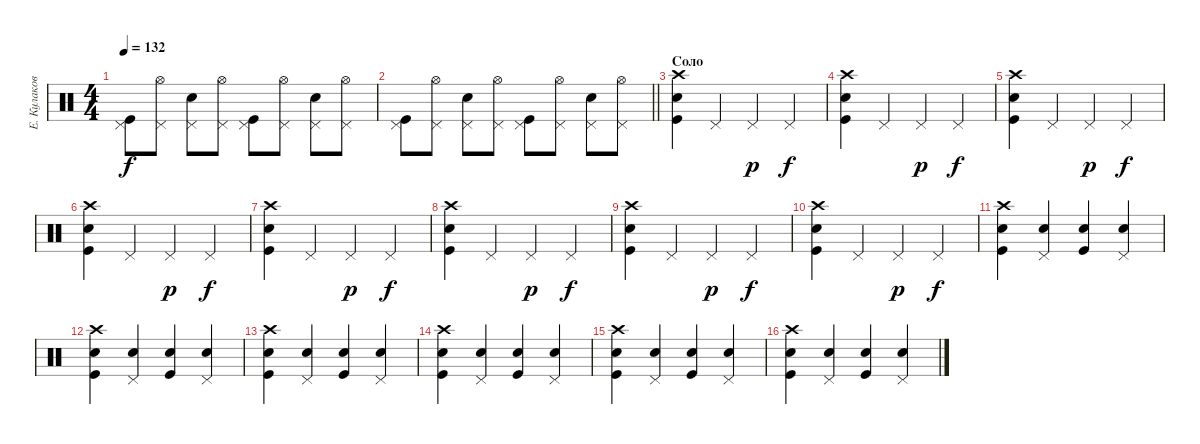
\track ("Е. Кулаков" "Е. Кулаков") {instrument percussion}
\staff {score}
\articulation defaults
\ts (4 4)
\tempo 132
\clef neutral
\ks c
("Kick (hit)" "Pedal Hi-Hat (hit)").8{dy f} ("Hi-Hat (open)" "Pedal Hi-Hat (hit)").8 ("Pedal Hi-Hat (hit)" "Snare (hit) 2").8 ("Hi-Hat (open)" "Pedal Hi-Hat (hit)").8 ("Kick (hit)" "Pedal Hi-Hat (hit)").8 ("Hi-Hat (open)" "Pedal Hi-Hat (hit)").8 ("Pedal Hi-Hat (hit)" "Snare (hit) 2").8 ("Hi-Hat (open)" "Pedal Hi-Hat (hit)").8 |
\barLineRight lightlight
("Kick (hit)" "Pedal Hi-Hat (hit)").8 ("Hi-Hat (open)" "Pedal Hi-Hat (hit)").8 ("Pedal Hi-Hat (hit)" "Snare (hit) 2").8 ("Hi-Hat (open)" "Pedal Hi-Hat (hit)").8 ("Kick (hit)" "Pedal Hi-Hat (hit)").8 ("Hi-Hat (open)" "Pedal Hi-Hat (hit)").8 ("Pedal Hi-Hat (hit)" "Snare (hit) 2").8 ("Hi-Hat (open)" "Pedal Hi-Hat (hit)").8 |
\section ("" "Соло")
("Snare (hit) 2" "Kick (hit)" "Crash high (hit)").4 "Pedal Hi-Hat (hit)".4 "Pedal Hi-Hat (hit)".4{dy p} "Pedal Hi-Hat (hit)".4{dy f} |
("Snare (hit) 2" "Kick (hit)" "Crash high (hit)").4 "Pedal Hi-Hat (hit)".4 "Pedal Hi-Hat (hit)".4{dy p} "Pedal Hi-Hat (hit)".4{dy f} |
("Snare (hit) 2" "Kick (hit)" "Crash high (hit)").4 "Pedal Hi-Hat (hit)".4 "Pedal Hi-Hat (hit)".4{dy p} "Pedal Hi-Hat (hit)".4{dy f} |
("Snare (hit) 2" "Kick (hit)" "Crash high (hit)").4 "Pedal Hi-Hat (hit)".4 "Pedal Hi-Hat (hit)".4{dy p} "Pedal Hi-Hat (hit)".4{dy f} |
("Snare (hit) 2" "Kick (hit)" "Crash high (hit)").4 "Pedal Hi-Hat (hit)".4 "Pedal Hi-Hat (hit)".4{dy p} "Pedal Hi-Hat (hit)".4{dy f} |
("Snare (hit) 2" "Kick (hit)" "Crash high (hit)").4 "Pedal Hi-Hat (hit)".4 "Pedal Hi-Hat (hit)".4{dy p} "Pedal Hi-Hat (hit)".4{dy f} |
("Snare (hit) 2" "Kick (hit)" "Crash high (hit)").4 "Pedal Hi-Hat (hit)".4 "Pedal Hi-Hat (hit)".4{dy p} "Pedal Hi-Hat (hit)".4{dy f} |
("Snare (hit) 2" "Kick (hit)" "Crash high (hit)").4 "Pedal Hi-Hat (hit)".4 "Pedal Hi-Hat (hit)".4{dy p} "Pedal Hi-Hat (hit)".4{dy f} |
("Snare (hit) 2" "Kick (hit)" "Crash high (hit)").4 ("Pedal Hi-Hat (hit)" "Snare (hit) 2").4 ("Snare (hit) 2" "Kick (hit)").4 ("Pedal Hi-Hat (hit)" "Snare (hit) 2").4 |
("Snare (hit) 2" "Kick (hit)" "Crash high (hit)").4 ("Pedal Hi-Hat (hit)" "Snare (hit) 2").4 ("Snare (hit) 2" "Kick (hit)").4 ("Pedal Hi-Hat (hit)" "Snare (hit) 2").4 |
("Snare (hit) 2" "Kick (hit)" "Crash high (hit)").4 ("Pedal Hi-Hat (hit)" "Snare (hit) 2").4 ("Snare (hit) 2" "Kick (hit)").4 ("Pedal Hi-Hat (hit)" "Snare (hit) 2").4 |
("Snare (hit) 2" "Kick (hit)" "Crash high (hit)").4 ("Pedal Hi-Hat (hit)" "Snare (hit) 2").4 ("Snare (hit) 2" "Kick (hit)").4 ("Pedal Hi-Hat (hit)" "Snare (hit) 2").4 |
("Snare (hit) 2" "Kick (hit)" "Crash high (hit)").4 ("Pedal Hi-Hat (hit)" "Snare (hit) 2").4 ("Snare (hit) 2" "Kick (hit)").4 ("Pedal Hi-Hat (hit)" "Snare (hit) 2").4 |
("Snare (hit) 2" "Kick (hit)" "Crash high (hit)").4 ("Pedal Hi-Hat (hit)" "Snare (hit) 2").4 ("Snare (hit) 2" "Kick (hit)").4 ("Pedal Hi-Hat (hit)" "Snare (hit) 2").4
